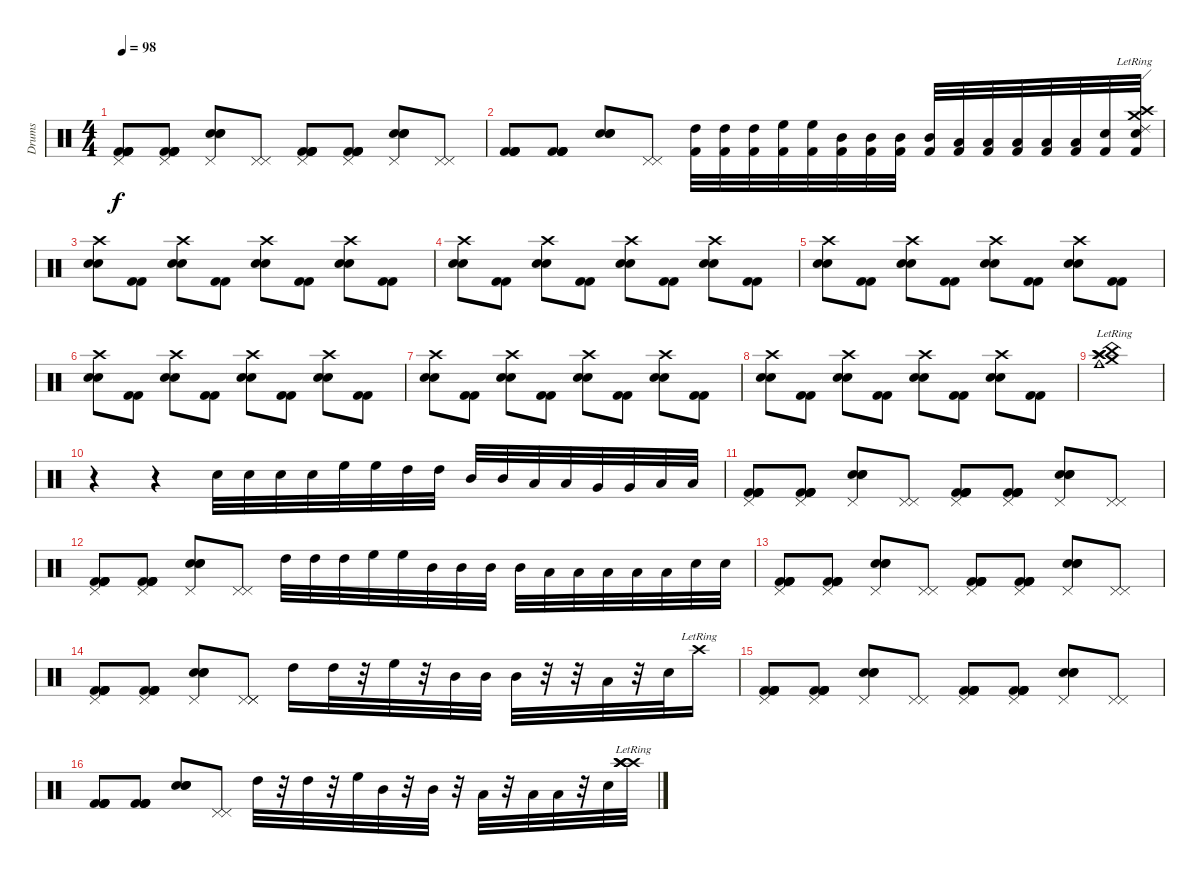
\track ("Drums" "Drums") {instrument percussion}
\staff {score}
\articulation defaults
\ts (4 4)
\tempo 98
\clef neutral
\ks c
("Pedal Hi-Hat (hit)" "Kick (hit) 2" "Kick (hit) 2" "Kick (hit) 2" "Kick (hit) 2").8{dy f} ("Pedal Hi-Hat (hit)" "Kick (hit) 2" "Kick (hit) 2" "Kick (hit) 2" "Kick (hit) 2").8 ("Pedal Hi-Hat (hit)" "Electric Snare (hit)" "Electric Snare (hit)" "Electric Snare (hit)").8 ("Pedal Hi-Hat (hit)" "Pedal Hi-Hat (hit)").8 ("Pedal Hi-Hat (hit)" "Kick (hit) 2" "Kick (hit) 2" "Kick (hit) 2" "Kick (hit) 2").8 ("Pedal Hi-Hat (hit)" "Kick (hit) 2" "Kick (hit) 2" "Kick (hit) 2" "Kick (hit) 2").8 ("Pedal Hi-Hat (hit)" "Electric Snare (hit)" "Electric Snare (hit)" "Electric Snare (hit)").8 ("Pedal Hi-Hat (hit)" "Pedal Hi-Hat (hit)").8 |
("Kick (hit) 2" "Kick (hit) 2" "Kick (hit) 2" "Kick (hit) 2").8 ("Kick (hit) 2" "Kick (hit) 2" "Kick (hit) 2" "Kick (hit) 2").8 ("Electric Snare (hit)" "Electric Snare (hit)" "Electric Snare (hit)").8 ("Pedal Hi-Hat (hit)" "Pedal Hi-Hat (hit)").8 ("Kick (hit) 2" "High Tom (hit)").32 ("Kick (hit) 2" "High Tom (hit)").32 ("Kick (hit) 2" "High Tom (hit)").32 ("Kick (hit) 2" "High Floor Tom (hit)").32 ("Kick (hit) 2" "High Floor Tom (hit)").32 ("Kick (hit) 2" "Mid Tom (hit)").32 ("Kick (hit) 2" "Mid Tom (hit)").32 ("Kick (hit) 2" "Mid Tom (hit)").32 ("Kick (hit) 2" "Mid Tom (hit)").32 ("Kick (hit) 2" "Low Tom (hit)").32 ("Kick (hit) 2" "Low Tom (hit)").32 ("Kick (hit) 2" "Low Tom (hit)").32 ("Kick (hit) 2" "Low Floor Tom (hit)").32 ("Kick (hit) 2" "Low Floor Tom (hit)").32 ("Kick (hit) 2" "Electric Snare (hit)").32 ("Kick (hit) 2"{lr} "Electric Snare (hit)"{lr} "Crash high (hit)"{lr} "Crash medium (hit)"{lr} "Ride (edge) 2"{lr}).32 |
("Crash high (hit)" "Electric Snare (hit)" "Electric Snare (hit)").8 ("Kick (hit) 2" "Kick (hit) 2").8 ("Crash high (hit)" "Electric Snare (hit)" "Electric Snare (hit)").8 ("Kick (hit) 2" "Kick (hit) 2").8 ("Crash high (hit)" "Electric Snare (hit)" "Electric Snare (hit)").8 ("Kick (hit) 2" "Kick (hit) 2").8 ("Crash high (hit)" "Electric Snare (hit)" "Electric Snare (hit)").8 ("Kick (hit) 2" "Kick (hit) 2").8 |
("Crash high (hit)" "Electric Snare (hit)" "Electric Snare (hit)").8 ("Kick (hit) 2" "Kick (hit) 2").8 ("Crash high (hit)" "Electric Snare (hit)" "Electric Snare (hit)").8 ("Kick (hit) 2" "Kick (hit) 2").8 ("Crash high (hit)" "Electric Snare (hit)" "Electric Snare (hit)").8 ("Kick (hit) 2" "Kick (hit) 2").8 ("Crash high (hit)" "Electric Snare (hit)" "Electric Snare (hit)").8 ("Kick (hit) 2" "Kick (hit) 2").8 |
("Crash high (hit)" "Electric Snare (hit)" "Electric Snare (hit)").8 ("Kick (hit) 2" "Kick (hit) 2").8 ("Crash high (hit)" "Electric Snare (hit)" "Electric Snare (hit)").8 ("Kick (hit) 2" "Kick (hit) 2").8 ("Crash high (hit)" "Electric Snare (hit)" "Electric Snare (hit)").8 ("Kick (hit) 2" "Kick (hit) 2").8 ("Crash high (hit)" "Electric Snare (hit)" "Electric Snare (hit)").8 ("Kick (hit) 2" "Kick (hit) 2").8 |
("Crash high (hit)" "Electric Snare (hit)" "Electric Snare (hit)").8 ("Kick (hit) 2" "Kick (hit) 2").8 ("Crash high (hit)" "Electric Snare (hit)" "Electric Snare (hit)").8 ("Kick (hit) 2" "Kick (hit) 2").8 ("Crash high (hit)" "Electric Snare (hit)" "Electric Snare (hit)").8 ("Kick (hit) 2" "Kick (hit) 2").8 ("Crash high (hit)" "Electric Snare (hit)" "Electric Snare (hit)").8 ("Kick (hit) 2" "Kick (hit) 2").8 |
("Crash high (hit)" "Electric Snare (hit)" "Electric Snare (hit)").8 ("Kick (hit) 2" "Kick (hit) 2").8 ("Crash high (hit)" "Electric Snare (hit)" "Electric Snare (hit)").8 ("Kick (hit) 2" "Kick (hit) 2").8 ("Crash high (hit)" "Electric Snare (hit)" "Electric Snare (hit)").8 ("Kick (hit) 2" "Kick (hit) 2").8 ("Crash high (hit)" "Electric Snare (hit)" "Electric Snare (hit)").8 ("Kick (hit) 2" "Kick (hit) 2").8 |
("Crash high (hit)" "Electric Snare (hit)" "Electric Snare (hit)").8 ("Kick (hit) 2" "Kick (hit) 2").8 ("Crash high (hit)" "Electric Snare (hit)" "Electric Snare (hit)").8 ("Kick (hit) 2" "Kick (hit) 2").8 ("Crash high (hit)" "Electric Snare (hit)" "Electric Snare (hit)").8 ("Kick (hit) 2" "Kick (hit) 2").8 ("Crash high (hit)" "Electric Snare (hit)" "Electric Snare (hit)").8 ("Kick (hit) 2" "Kick (hit) 2").8 |
("Cowbell medium (hit)"{lr} "Crash high (hit)"{lr} "Crash high (hit)"{lr} "Crash medium (hit)"{lr} "China (hit)"{lr} "Splash (hit)"{lr}).1 |
r.4 r.4 "Electric Snare (hit)".32 "Electric Snare (hit)".32 "Electric Snare (hit)".32 "Electric Snare (hit)".32 "High Floor Tom (hit)".32 "High Floor Tom (hit)".32 "High Tom (hit)".32 "High Tom (hit)".32 "Mid Tom (hit)".32 "Mid Tom (hit)".32 "Low Tom (hit)".32 "Low Tom (hit)".32 "Very Low Tom (hit)".32 "Very Low Tom (hit)".32 "Low Floor Tom (hit)".32 "Low Floor Tom (hit)".32 |
("Pedal Hi-Hat (hit)" "Kick (hit) 2" "Kick (hit) 2" "Kick (hit) 2" "Kick (hit) 2").8 ("Pedal Hi-Hat (hit)" "Kick (hit) 2" "Kick (hit) 2" "Kick (hit) 2" "Kick (hit) 2").8 ("Pedal Hi-Hat (hit)" "Electric Snare (hit)" "Electric Snare (hit)" "Electric Snare (hit)").8 ("Pedal Hi-Hat (hit)" "Pedal Hi-Hat (hit)").8 ("Pedal Hi-Hat (hit)" "Kick (hit) 2" "Kick (hit) 2" "Kick (hit) 2" "Kick (hit) 2").8 ("Pedal Hi-Hat (hit)" "Kick (hit) 2" "Kick (hit) 2" "Kick (hit) 2" "Kick (hit) 2").8 ("Pedal Hi-Hat (hit)" "Electric Snare (hit)" "Electric Snare (hit)" "Electric Snare (hit)").8 ("Pedal Hi-Hat (hit)" "Pedal Hi-Hat (hit)").8 |
("Pedal Hi-Hat (hit)" "Kick (hit) 2" "Kick (hit) 2" "Kick (hit) 2" "Kick (hit) 2").8 ("Pedal Hi-Hat (hit)" "Kick (hit) 2" "Kick (hit) 2" "Kick (hit) 2" "Kick (hit) 2").8 ("Pedal Hi-Hat (hit)" "Electric Snare (hit)" "Electric Snare (hit)" "Electric Snare (hit)").8 ("Pedal Hi-Hat (hit)" "Pedal Hi-Hat (hit)").8 "High Tom (hit)".32 "High Tom (hit)".32 "High Tom (hit)".32 "High Floor Tom (hit)".32 "High Floor Tom (hit)".32 "Mid Tom (hit)".32 "Mid Tom (hit)".32 "Mid Tom (hit)".32 "Mid Tom (hit)".32 "Low Tom (hit)".32 "Low Tom (hit)".32 "Low Tom (hit)".32 "Low Floor Tom (hit)".32 "Low Floor Tom (hit)".32 "Electric Snare (hit)".32 "Electric Snare (hit)".32 |
("Pedal Hi-Hat (hit)" "Kick (hit) 2" "Kick (hit) 2" "Kick (hit) 2" "Kick (hit) 2").8 ("Pedal Hi-Hat (hit)" "Kick (hit) 2" "Kick (hit) 2" "Kick (hit) 2" "Kick (hit) 2").8 ("Pedal Hi-Hat (hit)" "Electric Snare (hit)" "Electric Snare (hit)" "Electric Snare (hit)").8 ("Pedal Hi-Hat (hit)" "Pedal Hi-Hat (hit)").8 ("Pedal Hi-Hat (hit)" "Kick (hit) 2" "Kick (hit) 2" "Kick (hit) 2" "Kick (hit) 2").8 ("Pedal Hi-Hat (hit)" "Kick (hit) 2" "Kick (hit) 2" "Kick (hit) 2" "Kick (hit) 2").8 ("Pedal Hi-Hat (hit)" "Electric Snare (hit)" "Electric Snare (hit)" "Electric Snare (hit)").8 ("Pedal Hi-Hat (hit)" "Pedal Hi-Hat (hit)").8 |
("Pedal Hi-Hat (hit)" "Kick (hit) 2" "Kick (hit) 2" "Kick (hit) 2" "Kick (hit) 2").8 ("Pedal Hi-Hat (hit)" "Kick (hit) 2" "Kick (hit) 2" "Kick (hit) 2" "Kick (hit) 2").8 ("Pedal Hi-Hat (hit)" "Electric Snare (hit)" "Electric Snare (hit)" "Electric Snare (hit)").8 ("Pedal Hi-Hat (hit)" "Pedal Hi-Hat (hit)" "Pedal Hi-Hat (hit)").8 "High Tom (hit)".16 "High Tom (hit)".32 r.32 "High Floor Tom (hit)".32 r.32 "Mid Tom (hit)".32 "Mid Tom (hit)".32 "Mid Tom (hit)".32 r.32 r.32 "Low Tom (hit)".32 r.32 "Electric Snare (hit)".32 "Crash high (hit)"{lr}.16 |
("Pedal Hi-Hat (hit)" "Kick (hit) 2" "Kick (hit) 2" "Kick (hit) 2" "Kick (hit) 2").8 ("Pedal Hi-Hat (hit)" "Kick (hit) 2" "Kick (hit) 2" "Kick (hit) 2" "Kick (hit) 2").8 ("Pedal Hi-Hat (hit)" "Electric Snare (hit)" "Electric Snare (hit)" "Electric Snare (hit)").8 ("Pedal Hi-Hat (hit)" "Pedal Hi-Hat (hit)").8 ("Pedal Hi-Hat (hit)" "Kick (hit) 2" "Kick (hit) 2" "Kick (hit) 2" "Kick (hit) 2").8 ("Pedal Hi-Hat (hit)" "Kick (hit) 2" "Kick (hit) 2" "Kick (hit) 2" "Kick (hit) 2").8 ("Pedal Hi-Hat (hit)" "Electric Snare (hit)" "Electric Snare (hit)" "Electric Snare (hit)").8 ("Pedal Hi-Hat (hit)" "Pedal Hi-Hat (hit)").8 |
("Kick (hit) 2" "Kick (hit) 2" "Kick (hit) 2" "Kick (hit) 2").8 ("Kick (hit) 2" "Kick (hit) 2" "Kick (hit) 2" "Kick (hit) 2").8 ("Electric Snare (hit)" "Electric Snare (hit)" "Electric Snare (hit)").8 ("Pedal Hi-Hat (hit)" "Pedal Hi-Hat (hit)").8 "High Tom (hit)".32 r.32 "High Tom (hit)".32 r.32 "High Floor Tom (hit)".32 "Mid Tom (hit)".32 r.32 "Mid Tom (hit)".32 r.32 "Low Tom (hit)".32 r.32 "Low Tom (hit)".32 "Low Floor Tom (hit)".32 r.32 "Electric Snare (hit)".32 ("Crash high (hit)"{lr} "Crash high (hit)"{lr} "Crash high (hit)"{lr} "Crash high (hit)"{lr}).32
